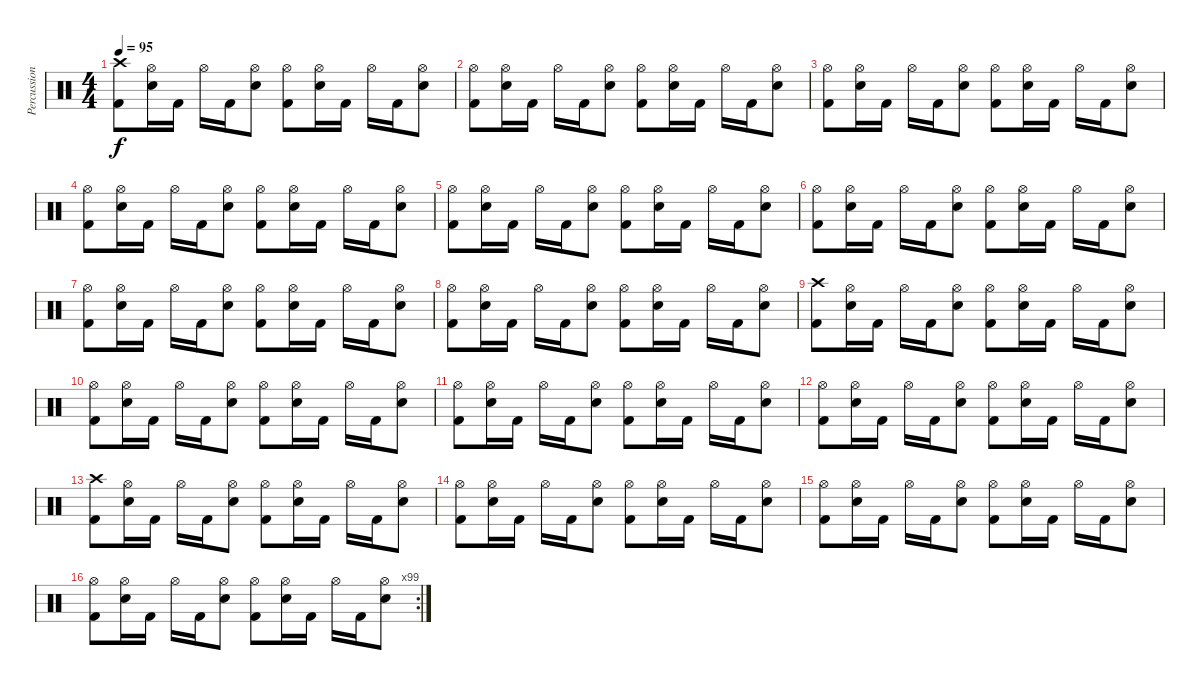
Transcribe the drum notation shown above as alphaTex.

\track ("Percussion" "Percussion") {instrument percussion}
\staff {score}
\articulation defaults
\ts (4 4)
\tempo 95
\clef neutral
\ks c
("Crash high (hit)" "Kick (hit) 2").8{dy f} ("Hi-Hat (open)" "Electric Snare (hit)").16 "Kick (hit) 2".16 "Hi-Hat (open)".16 "Kick (hit) 2".16 ("Hi-Hat (open)" "Electric Snare (hit)").8 ("Hi-Hat (open)" "Kick (hit) 2").8 ("Hi-Hat (open)" "Electric Snare (hit)").16 "Kick (hit) 2".16 "Hi-Hat (open)".16 "Kick (hit) 2".16 ("Hi-Hat (open)" "Electric Snare (hit)").8 |
("Hi-Hat (open)" "Kick (hit) 2").8 ("Hi-Hat (open)" "Electric Snare (hit)").16 "Kick (hit) 2".16 "Hi-Hat (open)".16 "Kick (hit) 2".16 ("Hi-Hat (open)" "Electric Snare (hit)").8 ("Hi-Hat (open)" "Kick (hit) 2").8 ("Hi-Hat (open)" "Electric Snare (hit)").16 "Kick (hit) 2".16 "Hi-Hat (open)".16 "Kick (hit) 2".16 ("Hi-Hat (open)" "Electric Snare (hit)").8 |
("Hi-Hat (open)" "Kick (hit) 2").8 ("Hi-Hat (open)" "Electric Snare (hit)").16 "Kick (hit) 2".16 "Hi-Hat (open)".16 "Kick (hit) 2".16 ("Hi-Hat (open)" "Electric Snare (hit)").8 ("Hi-Hat (open)" "Kick (hit) 2").8 ("Hi-Hat (open)" "Electric Snare (hit)").16 "Kick (hit) 2".16 "Hi-Hat (open)".16 "Kick (hit) 2".16 ("Hi-Hat (open)" "Electric Snare (hit)").8 |
("Hi-Hat (open)" "Kick (hit) 2").8 ("Hi-Hat (open)" "Electric Snare (hit)").16 "Kick (hit) 2".16 "Hi-Hat (open)".16 "Kick (hit) 2".16 ("Hi-Hat (open)" "Electric Snare (hit)").8 ("Hi-Hat (open)" "Kick (hit) 2").8 ("Hi-Hat (open)" "Electric Snare (hit)").16 "Kick (hit) 2".16 "Hi-Hat (open)".16 "Kick (hit) 2".16 ("Hi-Hat (open)" "Electric Snare (hit)").8 |
("Hi-Hat (open)" "Kick (hit) 2").8 ("Hi-Hat (open)" "Electric Snare (hit)").16 "Kick (hit) 2".16 "Hi-Hat (open)".16 "Kick (hit) 2".16 ("Hi-Hat (open)" "Electric Snare (hit)").8 ("Hi-Hat (open)" "Kick (hit) 2").8 ("Hi-Hat (open)" "Electric Snare (hit)").16 "Kick (hit) 2".16 "Hi-Hat (open)".16 "Kick (hit) 2".16 ("Hi-Hat (open)" "Electric Snare (hit)").8 |
("Hi-Hat (open)" "Kick (hit) 2").8 ("Hi-Hat (open)" "Electric Snare (hit)").16 "Kick (hit) 2".16 "Hi-Hat (open)".16 "Kick (hit) 2".16 ("Hi-Hat (open)" "Electric Snare (hit)").8 ("Hi-Hat (open)" "Kick (hit) 2").8 ("Hi-Hat (open)" "Electric Snare (hit)").16 "Kick (hit) 2".16 "Hi-Hat (open)".16 "Kick (hit) 2".16 ("Hi-Hat (open)" "Electric Snare (hit)").8 |
("Hi-Hat (open)" "Kick (hit) 2").8 ("Hi-Hat (open)" "Electric Snare (hit)").16 "Kick (hit) 2".16 "Hi-Hat (open)".16 "Kick (hit) 2".16 ("Hi-Hat (open)" "Electric Snare (hit)").8 ("Hi-Hat (open)" "Kick (hit) 2").8 ("Hi-Hat (open)" "Electric Snare (hit)").16 "Kick (hit) 2".16 "Hi-Hat (open)".16 "Kick (hit) 2".16 ("Hi-Hat (open)" "Electric Snare (hit)").8 |
("Hi-Hat (open)" "Kick (hit) 2").8 ("Hi-Hat (open)" "Electric Snare (hit)").16 "Kick (hit) 2".16 "Hi-Hat (open)".16 "Kick (hit) 2".16 ("Hi-Hat (open)" "Electric Snare (hit)").8 ("Hi-Hat (open)" "Kick (hit) 2").8 ("Hi-Hat (open)" "Electric Snare (hit)").16 "Kick (hit) 2".16 "Hi-Hat (open)".16 "Kick (hit) 2".16 ("Hi-Hat (open)" "Electric Snare (hit)").8 |
("Crash high (hit)" "Kick (hit) 2").8 ("Hi-Hat (open)" "Electric Snare (hit)").16 "Kick (hit) 2".16 "Hi-Hat (open)".16 "Kick (hit) 2".16 ("Hi-Hat (open)" "Electric Snare (hit)").8 ("Hi-Hat (open)" "Kick (hit) 2").8 ("Hi-Hat (open)" "Electric Snare (hit)").16 "Kick (hit) 2".16 "Hi-Hat (open)".16 "Kick (hit) 2".16 ("Hi-Hat (open)" "Electric Snare (hit)").8 |
("Hi-Hat (open)" "Kick (hit) 2").8 ("Hi-Hat (open)" "Electric Snare (hit)").16 "Kick (hit) 2".16 "Hi-Hat (open)".16 "Kick (hit) 2".16 ("Hi-Hat (open)" "Electric Snare (hit)").8 ("Hi-Hat (open)" "Kick (hit) 2").8 ("Hi-Hat (open)" "Electric Snare (hit)").16 "Kick (hit) 2".16 "Hi-Hat (open)".16 "Kick (hit) 2".16 ("Hi-Hat (open)" "Electric Snare (hit)").8 |
("Hi-Hat (open)" "Kick (hit) 2").8 ("Hi-Hat (open)" "Electric Snare (hit)").16 "Kick (hit) 2".16 "Hi-Hat (open)".16 "Kick (hit) 2".16 ("Hi-Hat (open)" "Electric Snare (hit)").8 ("Hi-Hat (open)" "Kick (hit) 2").8 ("Hi-Hat (open)" "Electric Snare (hit)").16 "Kick (hit) 2".16 "Hi-Hat (open)".16 "Kick (hit) 2".16 ("Hi-Hat (open)" "Electric Snare (hit)").8 |
("Hi-Hat (open)" "Kick (hit) 2").8 ("Hi-Hat (open)" "Electric Snare (hit)").16 "Kick (hit) 2".16 "Hi-Hat (open)".16 "Kick (hit) 2".16 ("Hi-Hat (open)" "Electric Snare (hit)").8 ("Hi-Hat (open)" "Kick (hit) 2").8 ("Hi-Hat (open)" "Electric Snare (hit)").16 "Kick (hit) 2".16 "Hi-Hat (open)".16 "Kick (hit) 2".16 ("Hi-Hat (open)" "Electric Snare (hit)").8 |
("Crash high (hit)" "Kick (hit) 2").8 ("Hi-Hat (open)" "Electric Snare (hit)").16 "Kick (hit) 2".16 "Hi-Hat (open)".16 "Kick (hit) 2".16 ("Hi-Hat (open)" "Electric Snare (hit)").8 ("Hi-Hat (open)" "Kick (hit) 2").8 ("Hi-Hat (open)" "Electric Snare (hit)").16 "Kick (hit) 2".16 "Hi-Hat (open)".16 "Kick (hit) 2".16 ("Hi-Hat (open)" "Electric Snare (hit)").8 |
("Hi-Hat (open)" "Kick (hit) 2").8 ("Hi-Hat (open)" "Electric Snare (hit)").16 "Kick (hit) 2".16 "Hi-Hat (open)".16 "Kick (hit) 2".16 ("Hi-Hat (open)" "Electric Snare (hit)").8 ("Hi-Hat (open)" "Kick (hit) 2").8 ("Hi-Hat (open)" "Electric Snare (hit)").16 "Kick (hit) 2".16 "Hi-Hat (open)".16 "Kick (hit) 2".16 ("Hi-Hat (open)" "Electric Snare (hit)").8 |
("Hi-Hat (open)" "Kick (hit) 2").8 ("Hi-Hat (open)" "Electric Snare (hit)").16 "Kick (hit) 2".16 "Hi-Hat (open)".16 "Kick (hit) 2".16 ("Hi-Hat (open)" "Electric Snare (hit)").8 ("Hi-Hat (open)" "Kick (hit) 2").8 ("Hi-Hat (open)" "Electric Snare (hit)").16 "Kick (hit) 2".16 "Hi-Hat (open)".16 "Kick (hit) 2".16 ("Hi-Hat (open)" "Electric Snare (hit)").8 |
\rc 99
("Hi-Hat (open)" "Kick (hit) 2").8 ("Hi-Hat (open)" "Electric Snare (hit)").16 "Kick (hit) 2".16 "Hi-Hat (open)".16 "Kick (hit) 2".16 ("Hi-Hat (open)" "Electric Snare (hit)").8 ("Hi-Hat (open)" "Kick (hit) 2").8 ("Hi-Hat (open)" "Electric Snare (hit)").16 "Kick (hit) 2".16 "Hi-Hat (open)".16 "Kick (hit) 2".16 ("Hi-Hat (open)" "Electric Snare (hit)").8
